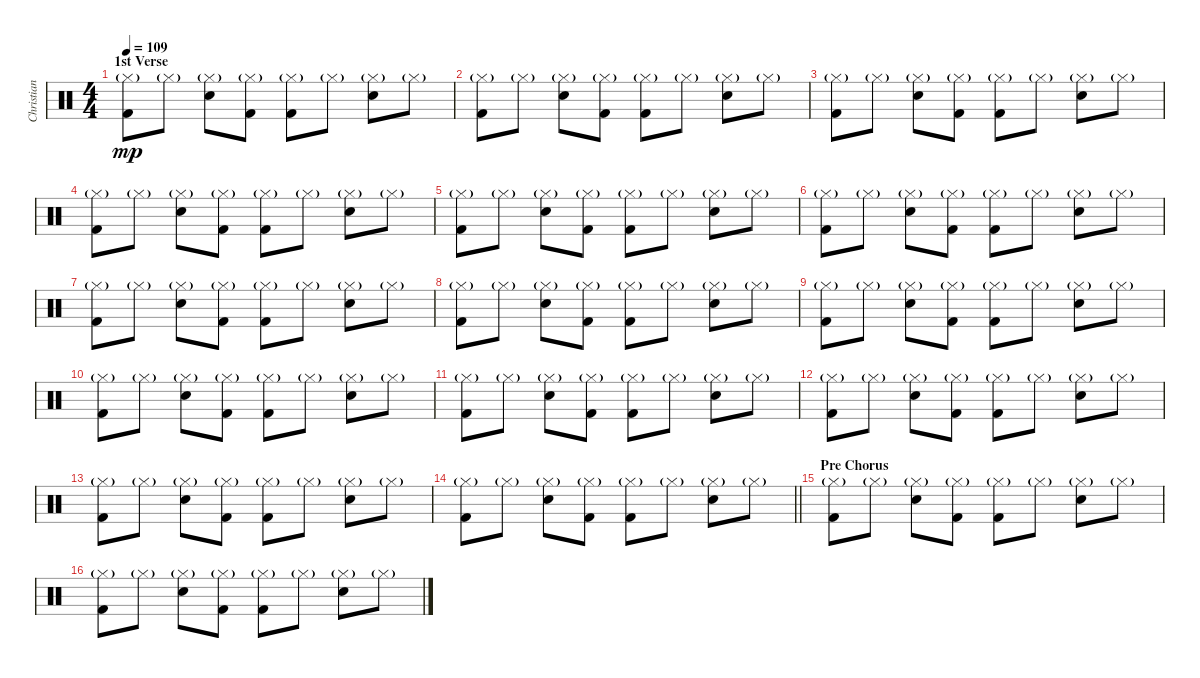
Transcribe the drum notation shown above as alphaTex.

\track ("Christian Eigner - Drums" "Christian ") {instrument percussion}
\staff {score}
\articulation defaults
\ts (4 4)
\section ("" "1st Verse")
\tempo 109
\clef neutral
\ks c
("Hi-Hat (closed)"{g} "Kick (hit) 2").8{dy mp} "Hi-Hat (closed)"{g}.8 ("Hi-Hat (closed)"{g} "Snare (hit) 2").8 ("Hi-Hat (closed)"{g} "Kick (hit) 2").8 ("Hi-Hat (closed)"{g} "Kick (hit) 2").8 "Hi-Hat (closed)"{g}.8 ("Hi-Hat (closed)"{g} "Snare (hit) 2").8 "Hi-Hat (closed)"{g}.8 |
("Hi-Hat (closed)"{g} "Kick (hit) 2").8 "Hi-Hat (closed)"{g}.8 ("Hi-Hat (closed)"{g} "Snare (hit) 2").8 ("Hi-Hat (closed)"{g} "Kick (hit) 2").8 ("Hi-Hat (closed)"{g} "Kick (hit) 2").8 "Hi-Hat (closed)"{g}.8 ("Hi-Hat (closed)"{g} "Snare (hit) 2").8 "Hi-Hat (closed)"{g}.8 |
("Hi-Hat (closed)"{g} "Kick (hit) 2").8 "Hi-Hat (closed)"{g}.8 ("Hi-Hat (closed)"{g} "Snare (hit) 2").8 ("Hi-Hat (closed)"{g} "Kick (hit) 2").8 ("Hi-Hat (closed)"{g} "Kick (hit) 2").8 "Hi-Hat (closed)"{g}.8 ("Hi-Hat (closed)"{g} "Snare (hit) 2").8 "Hi-Hat (closed)"{g}.8 |
("Hi-Hat (closed)"{g} "Kick (hit) 2").8 "Hi-Hat (closed)"{g}.8 ("Hi-Hat (closed)"{g} "Snare (hit) 2").8 ("Hi-Hat (closed)"{g} "Kick (hit) 2").8 ("Hi-Hat (closed)"{g} "Kick (hit) 2").8 "Hi-Hat (closed)"{g}.8 ("Hi-Hat (closed)"{g} "Snare (hit) 2").8 "Hi-Hat (closed)"{g}.8 |
("Hi-Hat (closed)"{g} "Kick (hit) 2").8 "Hi-Hat (closed)"{g}.8 ("Hi-Hat (closed)"{g} "Snare (hit) 2").8 ("Hi-Hat (closed)"{g} "Kick (hit) 2").8 ("Hi-Hat (closed)"{g} "Kick (hit) 2").8 "Hi-Hat (closed)"{g}.8 ("Hi-Hat (closed)"{g} "Snare (hit) 2").8 "Hi-Hat (closed)"{g}.8 |
("Hi-Hat (closed)"{g} "Kick (hit) 2").8 "Hi-Hat (closed)"{g}.8 ("Hi-Hat (closed)"{g} "Snare (hit) 2").8 ("Hi-Hat (closed)"{g} "Kick (hit) 2").8 ("Hi-Hat (closed)"{g} "Kick (hit) 2").8 "Hi-Hat (closed)"{g}.8 ("Hi-Hat (closed)"{g} "Snare (hit) 2").8 "Hi-Hat (closed)"{g}.8 |
("Hi-Hat (closed)"{g} "Kick (hit) 2").8 "Hi-Hat (closed)"{g}.8 ("Hi-Hat (closed)"{g} "Snare (hit) 2").8 ("Hi-Hat (closed)"{g} "Kick (hit) 2").8 ("Hi-Hat (closed)"{g} "Kick (hit) 2").8 "Hi-Hat (closed)"{g}.8 ("Hi-Hat (closed)"{g} "Snare (hit) 2").8 "Hi-Hat (closed)"{g}.8 |
("Hi-Hat (closed)"{g} "Kick (hit) 2").8 "Hi-Hat (closed)"{g}.8 ("Hi-Hat (closed)"{g} "Snare (hit) 2").8 ("Hi-Hat (closed)"{g} "Kick (hit) 2").8 ("Hi-Hat (closed)"{g} "Kick (hit) 2").8 "Hi-Hat (closed)"{g}.8 ("Hi-Hat (closed)"{g} "Snare (hit) 2").8 "Hi-Hat (closed)"{g}.8 |
("Hi-Hat (closed)"{g} "Kick (hit) 2").8 "Hi-Hat (closed)"{g}.8 ("Hi-Hat (closed)"{g} "Snare (hit) 2").8 ("Hi-Hat (closed)"{g} "Kick (hit) 2").8 ("Hi-Hat (closed)"{g} "Kick (hit) 2").8 "Hi-Hat (closed)"{g}.8 ("Hi-Hat (closed)"{g} "Snare (hit) 2").8 "Hi-Hat (closed)"{g}.8 |
("Hi-Hat (closed)"{g} "Kick (hit) 2").8 "Hi-Hat (closed)"{g}.8 ("Hi-Hat (closed)"{g} "Snare (hit) 2").8 ("Hi-Hat (closed)"{g} "Kick (hit) 2").8 ("Hi-Hat (closed)"{g} "Kick (hit) 2").8 "Hi-Hat (closed)"{g}.8 ("Hi-Hat (closed)"{g} "Snare (hit) 2").8 "Hi-Hat (closed)"{g}.8 |
("Hi-Hat (closed)"{g} "Kick (hit) 2").8 "Hi-Hat (closed)"{g}.8 ("Hi-Hat (closed)"{g} "Snare (hit) 2").8 ("Hi-Hat (closed)"{g} "Kick (hit) 2").8 ("Hi-Hat (closed)"{g} "Kick (hit) 2").8 "Hi-Hat (closed)"{g}.8 ("Hi-Hat (closed)"{g} "Snare (hit) 2").8 "Hi-Hat (closed)"{g}.8 |
("Hi-Hat (closed)"{g} "Kick (hit) 2").8 "Hi-Hat (closed)"{g}.8 ("Hi-Hat (closed)"{g} "Snare (hit) 2").8 ("Hi-Hat (closed)"{g} "Kick (hit) 2").8 ("Hi-Hat (closed)"{g} "Kick (hit) 2").8 "Hi-Hat (closed)"{g}.8 ("Hi-Hat (closed)"{g} "Snare (hit) 2").8 "Hi-Hat (closed)"{g}.8 |
("Hi-Hat (closed)"{g} "Kick (hit) 2").8 "Hi-Hat (closed)"{g}.8 ("Hi-Hat (closed)"{g} "Snare (hit) 2").8 ("Hi-Hat (closed)"{g} "Kick (hit) 2").8 ("Hi-Hat (closed)"{g} "Kick (hit) 2").8 "Hi-Hat (closed)"{g}.8 ("Hi-Hat (closed)"{g} "Snare (hit) 2").8 "Hi-Hat (closed)"{g}.8 |
\barLineRight lightlight
("Hi-Hat (closed)"{g} "Kick (hit) 2").8 "Hi-Hat (closed)"{g}.8 ("Hi-Hat (closed)"{g} "Snare (hit) 2").8 ("Hi-Hat (closed)"{g} "Kick (hit) 2").8 ("Hi-Hat (closed)"{g} "Kick (hit) 2").8 "Hi-Hat (closed)"{g}.8 ("Hi-Hat (closed)"{g} "Snare (hit) 2").8 "Hi-Hat (closed)"{g}.8 |
\section ("" "Pre Chorus")
("Hi-Hat (closed)"{g} "Kick (hit) 2").8 "Hi-Hat (closed)"{g}.8 ("Hi-Hat (closed)"{g} "Snare (hit) 2").8 ("Hi-Hat (closed)"{g} "Kick (hit) 2").8 ("Hi-Hat (closed)"{g} "Kick (hit) 2").8 "Hi-Hat (closed)"{g}.8 ("Hi-Hat (closed)"{g} "Snare (hit) 2").8 "Hi-Hat (closed)"{g}.8 |
("Hi-Hat (closed)"{g} "Kick (hit) 2").8 "Hi-Hat (closed)"{g}.8 ("Hi-Hat (closed)"{g} "Snare (hit) 2").8 ("Hi-Hat (closed)"{g} "Kick (hit) 2").8 ("Hi-Hat (closed)"{g} "Kick (hit) 2").8 "Hi-Hat (closed)"{g}.8 ("Hi-Hat (closed)"{g} "Snare (hit) 2").8 "Hi-Hat (closed)"{g}.8
